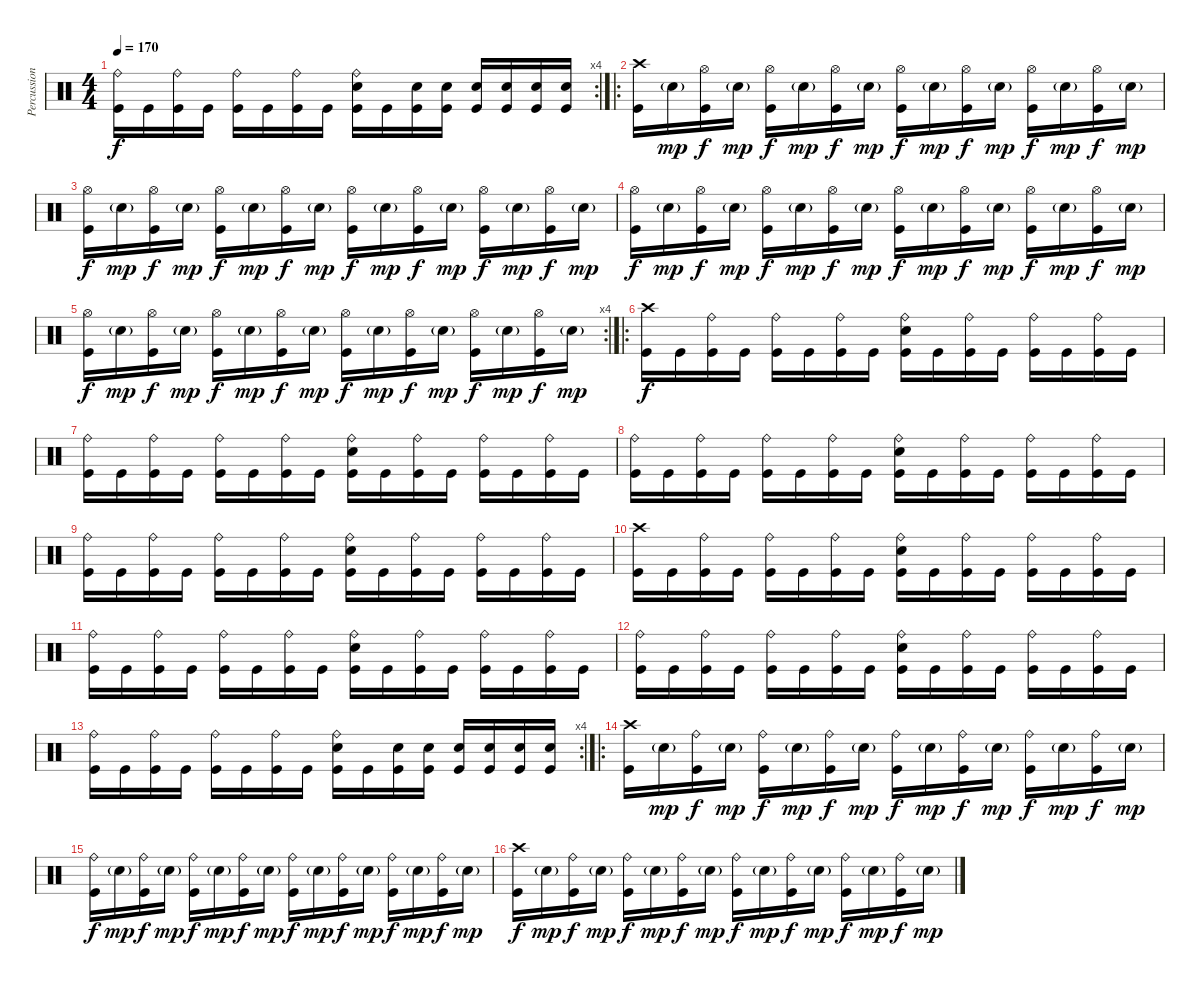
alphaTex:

\track ("Percussion" "Percussion") {instrument percussion}
\staff {score}
\articulation defaults
\rc 4
\ts (4 4)
\tempo 170
\clef neutral
\ks c
("Ride (bell)" "Kick (hit)").16{dy f} "Kick (hit)".16 ("Ride (bell)" "Kick (hit)").16 "Kick (hit)".16 ("Ride (bell)" "Kick (hit)").16 "Kick (hit)".16 ("Ride (bell)" "Kick (hit)").16 "Kick (hit)".16 ("Ride (bell)" "Snare (hit) 2" "Kick (hit)").16 "Kick (hit)".16 ("Snare (hit) 2" "Kick (hit)").16 ("Snare (hit) 2" "Kick (hit)").16 ("Snare (hit) 2" "Kick (hit)").16 ("Snare (hit) 2" "Kick (hit)").16 ("Snare (hit) 2" "Kick (hit)").16 ("Snare (hit) 2" "Kick (hit)").16 |
\ro
("Crash high (hit)" "Kick (hit)").16 "Snare (hit) 2"{g}.16{dy mp} ("Hi-Hat (open)" "Kick (hit)").16{dy f} "Snare (hit) 2"{g}.16{dy mp} ("Hi-Hat (open)" "Kick (hit)").16{dy f} "Snare (hit) 2"{g}.16{dy mp} ("Hi-Hat (open)" "Kick (hit)").16{dy f} "Snare (hit) 2"{g}.16{dy mp} ("Hi-Hat (open)" "Kick (hit)").16{dy f} "Snare (hit) 2"{g}.16{dy mp} ("Hi-Hat (open)" "Kick (hit)").16{dy f} "Snare (hit) 2"{g}.16{dy mp} ("Hi-Hat (open)" "Kick (hit)").16{dy f} "Snare (hit) 2"{g}.16{dy mp} ("Hi-Hat (open)" "Kick (hit)").16{dy f} "Snare (hit) 2"{g}.16{dy mp} |
("Hi-Hat (open)" "Kick (hit)").16{dy f} "Snare (hit) 2"{g}.16{dy mp} ("Hi-Hat (open)" "Kick (hit)").16{dy f} "Snare (hit) 2"{g}.16{dy mp} ("Hi-Hat (open)" "Kick (hit)").16{dy f} "Snare (hit) 2"{g}.16{dy mp} ("Hi-Hat (open)" "Kick (hit)").16{dy f} "Snare (hit) 2"{g}.16{dy mp} ("Hi-Hat (open)" "Kick (hit)").16{dy f} "Snare (hit) 2"{g}.16{dy mp} ("Hi-Hat (open)" "Kick (hit)").16{dy f} "Snare (hit) 2"{g}.16{dy mp} ("Hi-Hat (open)" "Kick (hit)").16{dy f} "Snare (hit) 2"{g}.16{dy mp} ("Hi-Hat (open)" "Kick (hit)").16{dy f} "Snare (hit) 2"{g}.16{dy mp} |
("Hi-Hat (open)" "Kick (hit)").16{dy f} "Snare (hit) 2"{g}.16{dy mp} ("Hi-Hat (open)" "Kick (hit)").16{dy f} "Snare (hit) 2"{g}.16{dy mp} ("Hi-Hat (open)" "Kick (hit)").16{dy f} "Snare (hit) 2"{g}.16{dy mp} ("Hi-Hat (open)" "Kick (hit)").16{dy f} "Snare (hit) 2"{g}.16{dy mp} ("Hi-Hat (open)" "Kick (hit)").16{dy f} "Snare (hit) 2"{g}.16{dy mp} ("Hi-Hat (open)" "Kick (hit)").16{dy f} "Snare (hit) 2"{g}.16{dy mp} ("Hi-Hat (open)" "Kick (hit)").16{dy f} "Snare (hit) 2"{g}.16{dy mp} ("Hi-Hat (open)" "Kick (hit)").16{dy f} "Snare (hit) 2"{g}.16{dy mp} |
\rc 4
("Hi-Hat (open)" "Kick (hit)").16{dy f} "Snare (hit) 2"{g}.16{dy mp} ("Hi-Hat (open)" "Kick (hit)").16{dy f} "Snare (hit) 2"{g}.16{dy mp} ("Hi-Hat (open)" "Kick (hit)").16{dy f} "Snare (hit) 2"{g}.16{dy mp} ("Hi-Hat (open)" "Kick (hit)").16{dy f} "Snare (hit) 2"{g}.16{dy mp} ("Hi-Hat (open)" "Kick (hit)").16{dy f} "Snare (hit) 2"{g}.16{dy mp} ("Hi-Hat (open)" "Kick (hit)").16{dy f} "Snare (hit) 2"{g}.16{dy mp} ("Hi-Hat (open)" "Kick (hit)").16{dy f} "Snare (hit) 2"{g}.16{dy mp} ("Hi-Hat (open)" "Kick (hit)").16{dy f} "Snare (hit) 2"{g}.16{dy mp} |
\ro
("Crash high (hit)" "Kick (hit)").16{dy f} "Kick (hit)".16 ("Ride (bell)" "Kick (hit)").16 "Kick (hit)".16 ("Ride (bell)" "Kick (hit)").16 "Kick (hit)".16 ("Ride (bell)" "Kick (hit)").16 "Kick (hit)".16 ("Ride (bell)" "Snare (hit) 2" "Kick (hit)").16 "Kick (hit)".16 ("Ride (bell)" "Kick (hit)").16 "Kick (hit)".16 ("Ride (bell)" "Kick (hit)").16 "Kick (hit)".16 ("Ride (bell)" "Kick (hit)").16 "Kick (hit)".16 |
("Ride (bell)" "Kick (hit)").16 "Kick (hit)".16 ("Ride (bell)" "Kick (hit)").16 "Kick (hit)".16 ("Ride (bell)" "Kick (hit)").16 "Kick (hit)".16 ("Ride (bell)" "Kick (hit)").16 "Kick (hit)".16 ("Ride (bell)" "Snare (hit) 2" "Kick (hit)").16 "Kick (hit)".16 ("Ride (bell)" "Kick (hit)").16 "Kick (hit)".16 ("Ride (bell)" "Kick (hit)").16 "Kick (hit)".16 ("Ride (bell)" "Kick (hit)").16 "Kick (hit)".16 |
("Ride (bell)" "Kick (hit)").16 "Kick (hit)".16 ("Ride (bell)" "Kick (hit)").16 "Kick (hit)".16 ("Ride (bell)" "Kick (hit)").16 "Kick (hit)".16 ("Ride (bell)" "Kick (hit)").16 "Kick (hit)".16 ("Ride (bell)" "Snare (hit) 2" "Kick (hit)").16 "Kick (hit)".16 ("Ride (bell)" "Kick (hit)").16 "Kick (hit)".16 ("Ride (bell)" "Kick (hit)").16 "Kick (hit)".16 ("Ride (bell)" "Kick (hit)").16 "Kick (hit)".16 |
("Ride (bell)" "Kick (hit)").16 "Kick (hit)".16 ("Ride (bell)" "Kick (hit)").16 "Kick (hit)".16 ("Ride (bell)" "Kick (hit)").16 "Kick (hit)".16 ("Ride (bell)" "Kick (hit)").16 "Kick (hit)".16 ("Ride (bell)" "Snare (hit) 2" "Kick (hit)").16 "Kick (hit)".16 ("Ride (bell)" "Kick (hit)").16 "Kick (hit)".16 ("Ride (bell)" "Kick (hit)").16 "Kick (hit)".16 ("Ride (bell)" "Kick (hit)").16 "Kick (hit)".16 |
("Crash high (hit)" "Kick (hit)").16 "Kick (hit)".16 ("Ride (bell)" "Kick (hit)").16 "Kick (hit)".16 ("Ride (bell)" "Kick (hit)").16 "Kick (hit)".16 ("Ride (bell)" "Kick (hit)").16 "Kick (hit)".16 ("Ride (bell)" "Snare (hit) 2" "Kick (hit)").16 "Kick (hit)".16 ("Ride (bell)" "Kick (hit)").16 "Kick (hit)".16 ("Ride (bell)" "Kick (hit)").16 "Kick (hit)".16 ("Ride (bell)" "Kick (hit)").16 "Kick (hit)".16 |
("Ride (bell)" "Kick (hit)").16 "Kick (hit)".16 ("Ride (bell)" "Kick (hit)").16 "Kick (hit)".16 ("Ride (bell)" "Kick (hit)").16 "Kick (hit)".16 ("Ride (bell)" "Kick (hit)").16 "Kick (hit)".16 ("Ride (bell)" "Snare (hit) 2" "Kick (hit)").16 "Kick (hit)".16 ("Ride (bell)" "Kick (hit)").16 "Kick (hit)".16 ("Ride (bell)" "Kick (hit)").16 "Kick (hit)".16 ("Ride (bell)" "Kick (hit)").16 "Kick (hit)".16 |
("Ride (bell)" "Kick (hit)").16 "Kick (hit)".16 ("Ride (bell)" "Kick (hit)").16 "Kick (hit)".16 ("Ride (bell)" "Kick (hit)").16 "Kick (hit)".16 ("Ride (bell)" "Kick (hit)").16 "Kick (hit)".16 ("Ride (bell)" "Snare (hit) 2" "Kick (hit)").16 "Kick (hit)".16 ("Ride (bell)" "Kick (hit)").16 "Kick (hit)".16 ("Ride (bell)" "Kick (hit)").16 "Kick (hit)".16 ("Ride (bell)" "Kick (hit)").16 "Kick (hit)".16 |
\rc 4
("Ride (bell)" "Kick (hit)").16 "Kick (hit)".16 ("Ride (bell)" "Kick (hit)").16 "Kick (hit)".16 ("Ride (bell)" "Kick (hit)").16 "Kick (hit)".16 ("Ride (bell)" "Kick (hit)").16 "Kick (hit)".16 ("Ride (bell)" "Snare (hit) 2" "Kick (hit)").16 "Kick (hit)".16 ("Snare (hit) 2" "Kick (hit)").16 ("Snare (hit) 2" "Kick (hit)").16 ("Snare (hit) 2" "Kick (hit)").16 ("Snare (hit) 2" "Kick (hit)").16 ("Snare (hit) 2" "Kick (hit)").16 ("Snare (hit) 2" "Kick (hit)").16 |
\ro
("Crash high (hit)" "Kick (hit)").16 "Snare (hit) 2"{g}.16{dy mp} ("Ride (bell)" "Kick (hit)").16{dy f} "Snare (hit) 2"{g}.16{dy mp} ("Ride (bell)" "Kick (hit)").16{dy f} "Snare (hit) 2"{g}.16{dy mp} ("Ride (bell)" "Kick (hit)").16{dy f} "Snare (hit) 2"{g}.16{dy mp} ("Ride (bell)" "Kick (hit)").16{dy f} "Snare (hit) 2"{g}.16{dy mp} ("Ride (bell)" "Kick (hit)").16{dy f} "Snare (hit) 2"{g}.16{dy mp} ("Ride (bell)" "Kick (hit)").16{dy f} "Snare (hit) 2"{g}.16{dy mp} ("Ride (bell)" "Kick (hit)").16{dy f} "Snare (hit) 2"{g}.16{dy mp} |
("Ride (bell)" "Kick (hit)").16{dy f} "Snare (hit) 2"{g}.16{dy mp} ("Ride (bell)" "Kick (hit)").16{dy f} "Snare (hit) 2"{g}.16{dy mp} ("Ride (bell)" "Kick (hit)").16{dy f} "Snare (hit) 2"{g}.16{dy mp} ("Ride (bell)" "Kick (hit)").16{dy f} "Snare (hit) 2"{g}.16{dy mp} ("Ride (bell)" "Kick (hit)").16{dy f} "Snare (hit) 2"{g}.16{dy mp} ("Ride (bell)" "Kick (hit)").16{dy f} "Snare (hit) 2"{g}.16{dy mp} ("Ride (bell)" "Kick (hit)").16{dy f} "Snare (hit) 2"{g}.16{dy mp} ("Ride (bell)" "Kick (hit)").16{dy f} "Snare (hit) 2"{g}.16{dy mp} |
("Crash high (hit)" "Kick (hit)").16{dy f} "Snare (hit) 2"{g}.16{dy mp} ("Ride (bell)" "Kick (hit)").16{dy f} "Snare (hit) 2"{g}.16{dy mp} ("Ride (bell)" "Kick (hit)").16{dy f} "Snare (hit) 2"{g}.16{dy mp} ("Ride (bell)" "Kick (hit)").16{dy f} "Snare (hit) 2"{g}.16{dy mp} ("Ride (bell)" "Kick (hit)").16{dy f} "Snare (hit) 2"{g}.16{dy mp} ("Ride (bell)" "Kick (hit)").16{dy f} "Snare (hit) 2"{g}.16{dy mp} ("Ride (bell)" "Kick (hit)").16{dy f} "Snare (hit) 2"{g}.16{dy mp} ("Ride (bell)" "Kick (hit)").16{dy f} "Snare (hit) 2"{g}.16{dy mp}
